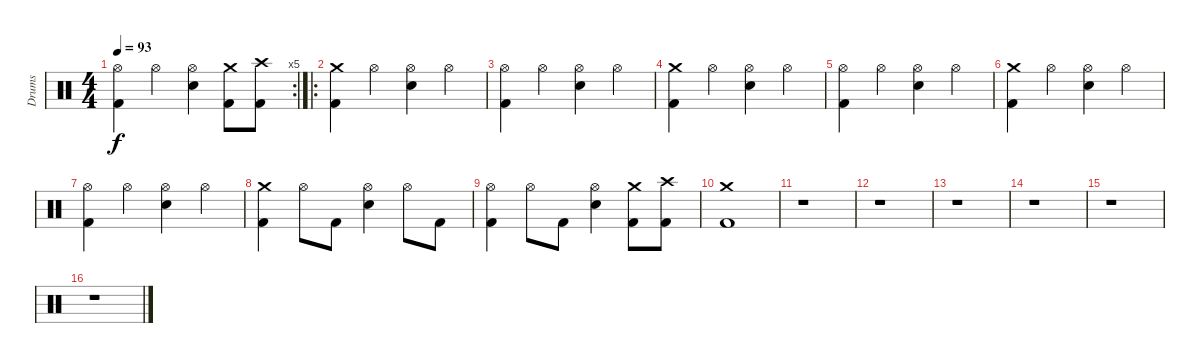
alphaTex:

\track ("Drums" "Drums") {instrument percussion}
\staff {score}
\articulation defaults
\rc 5
\ts (4 4)
\tempo 93
\clef neutral
\ks c
("Hi-Hat (open)" "Kick (hit) 2").4{dy f} "Hi-Hat (open)".4 ("Hi-Hat (open)" "Electric Snare (hit)").4 ("Crash medium (hit)" "Kick (hit) 2").8 ("Crash high (hit)" "Kick (hit) 2").8 |
\ro
("Crash medium (hit)" "Kick (hit) 2").4 "Hi-Hat (open)".4 ("Hi-Hat (open)" "Electric Snare (hit)").4 "Hi-Hat (open)".4 |
("Hi-Hat (open)" "Kick (hit) 2").4 "Hi-Hat (open)".4 ("Hi-Hat (open)" "Electric Snare (hit)").4 "Hi-Hat (open)".4 |
("Crash medium (hit)" "Kick (hit) 2").4 "Hi-Hat (open)".4 ("Hi-Hat (open)" "Electric Snare (hit)").4 "Hi-Hat (open)".4 |
("Hi-Hat (open)" "Kick (hit) 2").4 "Hi-Hat (open)".4 ("Hi-Hat (open)" "Electric Snare (hit)").4 "Hi-Hat (open)".4 |
("Crash medium (hit)" "Kick (hit) 2").4 "Hi-Hat (open)".4 ("Hi-Hat (open)" "Electric Snare (hit)").4 "Hi-Hat (open)".4 |
("Hi-Hat (open)" "Kick (hit) 2").4 "Hi-Hat (open)".4 ("Hi-Hat (open)" "Electric Snare (hit)").4 "Hi-Hat (open)".4 |
("Crash medium (hit)" "Kick (hit) 2").4 "Hi-Hat (open)".8 "Kick (hit) 2".8 ("Hi-Hat (open)" "Electric Snare (hit)").4 "Hi-Hat (open)".8 "Kick (hit) 2".8 |
("Hi-Hat (open)" "Kick (hit) 2").4 "Hi-Hat (open)".8 "Kick (hit) 2".8 ("Hi-Hat (open)" "Electric Snare (hit)").4 ("Crash medium (hit)" "Kick (hit) 2").8 ("Crash high (hit)" "Kick (hit) 2").8 |
("Crash medium (hit)" "Kick (hit) 2").1 |
r.1 |
r.1 |
r.1 |
r.1 |
r.1 |
r.1
